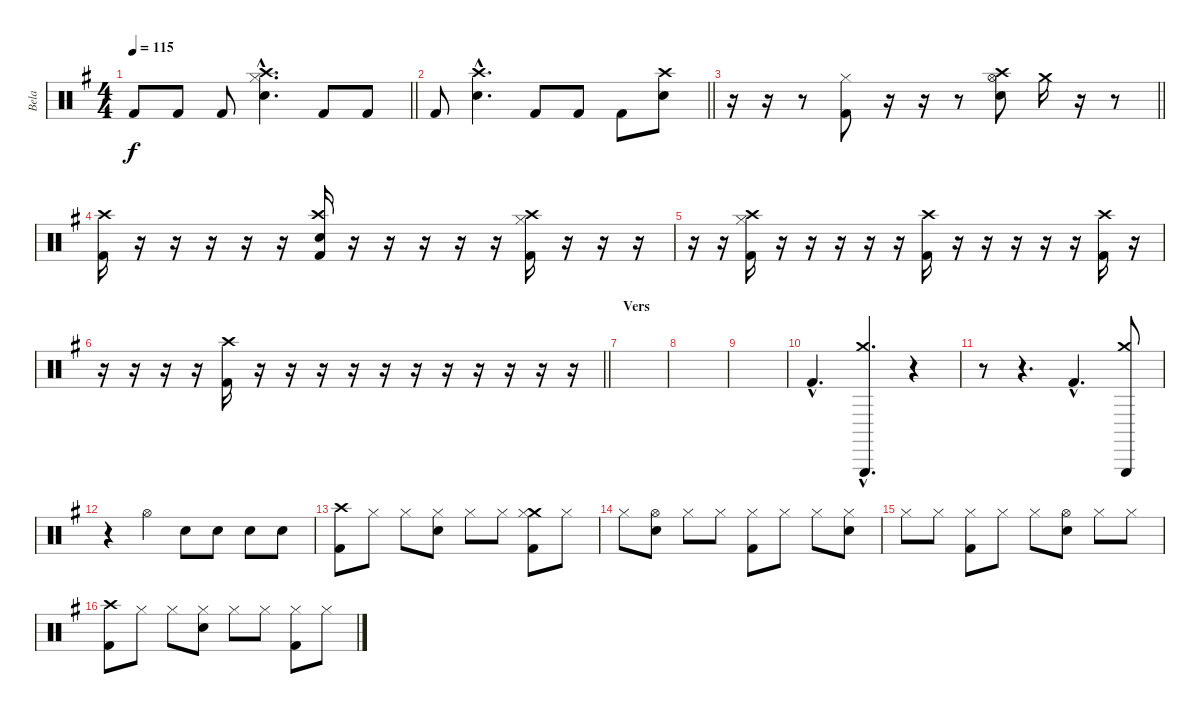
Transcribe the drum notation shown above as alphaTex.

\track ("Bela" "Bela") {instrument percussion}
\staff {score}
\articulation defaults
\ts (4 4)
\tempo 115
\clef neutral
\barLineRight lightlight
\ks eminor "Kick (hit) 2".8{dy f} "Kick (hit) 2".8 "Kick (hit) 2".8
("Crash high (hit)"{hac} "Hi-Hat (closed)"{hac} "Electric Snare (hit)"{hac}).4{d} "Kick (hit) 2".8 "Kick (hit) 2".8 |
\barLineRight lightlight "Kick (hit) 2".8
("Crash high (hit)"{hac} "Electric Snare (hit)"{hac}).4{d} "Kick (hit) 2".8 "Kick (hit) 2".8 "Kick (hit) 2".8 ("Crash high (hit)" "Electric Snare (hit)").8 |
\barLineRight lightlight
r.16 r.16 r.8 ("Hi-Hat (closed)" "Kick (hit) 2").8 r.16 r.16 r.8 ("Hi-Hat (open)" "Electric Snare (hit)" "Crash high (hit)").8 "Crash medium (hit)".16 r.16 r.8 |
("Crash high (hit)" "Kick (hit) 2").16 r.16 r.16 r.16 r.16 r.16 ("Crash high (hit)" "Electric Snare (hit)" "Kick (hit) 2").16 r.16 r.16 r.16 r.16 r.16 ("Crash high (hit)" "Hi-Hat (closed)" "Kick (hit) 2").16 r.16 r.16 r.16 |
r.16 r.16 ("Crash high (hit)" "Hi-Hat (closed)" "Kick (hit) 2").16 r.16 r.16 r.16 r.16 r.16 ("Crash high (hit)" "Kick (hit) 2").16 r.16 r.16 r.16 r.16 r.16 ("Crash high (hit)" "Kick (hit) 2").16 r.16 |
\barLineRight lightlight
r.16 r.16 r.16 r.16 ("Crash high (hit)" "Kick (hit) 2").16 r.16 r.16 r.16 r.16 r.16 r.16 r.16 r.16 r.16 r.16 r.16 |
\section ("" "Vers")
|
|
|
"Kick (hit) 2"{hac}.4{d} ("Triangle (hit)"{hac} "Crash medium (hit)"{hac}).4{d} r.4 |
r.8 r.4{d} "Kick (hit) 2"{hac}.4{d} ("Triangle (hit)" "Crash medium (hit)").8 |
r.4 "Hi-Hat (open)".4 "Electric Snare (hit)".8 "Electric Snare (hit)".8 "Electric Snare (hit)".8 "Electric Snare (hit)".8 |
("Crash high (hit)" "Kick (hit) 2").8 "Hi-Hat (closed)".8 "Hi-Hat (closed)".8 ("Hi-Hat (closed)" "Electric Snare (hit)").8 "Hi-Hat (closed)".8 "Hi-Hat (closed)".8 ("Crash medium (hit)" "Hi-Hat (closed)" "Kick (hit) 2").8 "Hi-Hat (closed)".8 |
"Hi-Hat (closed)".8 ("Hi-Hat (open)" "Electric Snare (hit)").8 "Hi-Hat (closed)".8 "Hi-Hat (closed)".8 ("Hi-Hat (closed)" "Kick (hit) 2").8 "Hi-Hat (closed)".8 "Hi-Hat (closed)".8 ("Electric Snare (hit)" "Hi-Hat (closed)").8 |
"Hi-Hat (closed)".8 "Hi-Hat (closed)".8 ("Hi-Hat (closed)" "Kick (hit) 2").8 "Hi-Hat (closed)".8 "Hi-Hat (closed)".8 ("Hi-Hat (open)" "Electric Snare (hit)").8 "Hi-Hat (closed)".8 "Hi-Hat (closed)".8 |
("Crash high (hit)" "Kick (hit) 2").8 "Hi-Hat (closed)".8 "Hi-Hat (closed)".8 ("Hi-Hat (closed)" "Electric Snare (hit)").8 "Hi-Hat (closed)".8 "Hi-Hat (closed)".8 ("Hi-Hat (closed)" "Kick (hit) 2").8 "Hi-Hat (closed)".8
